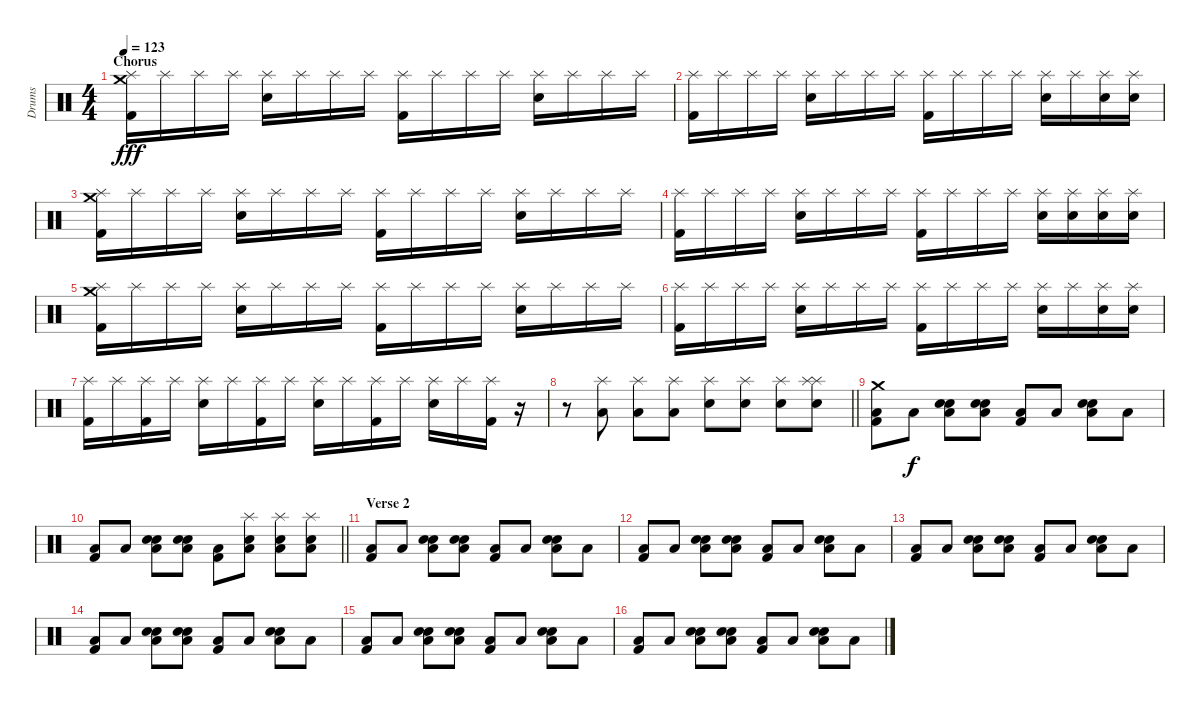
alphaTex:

\track ("Drums" "Drums") {instrument percussion}
\staff {score}
\articulation defaults
\ts (4 4)
\section ("" "Chorus")
\tempo 123
\clef neutral
\ks c
("Crash medium (hit)" "Splash (hit)" "Kick (hit) 2").16{dy fff} "Splash (hit)".16 "Splash (hit)".16 "Splash (hit)".16 ("Splash (hit)" "Electric Snare (hit)").16 "Splash (hit)".16 "Splash (hit)".16 "Splash (hit)".16 ("Splash (hit)" "Kick (hit) 2").16 "Splash (hit)".16 "Splash (hit)".16 "Splash (hit)".16 ("Splash (hit)" "Electric Snare (hit)").16 "Splash (hit)".16 "Splash (hit)".16 "Splash (hit)".16 |
("Splash (hit)" "Kick (hit) 2").16 "Splash (hit)".16 "Splash (hit)".16 "Splash (hit)".16 ("Splash (hit)" "Electric Snare (hit)").16 "Splash (hit)".16 "Splash (hit)".16 "Splash (hit)".16 ("Splash (hit)" "Kick (hit) 2").16 "Splash (hit)".16 "Splash (hit)".16 "Splash (hit)".16 ("Splash (hit)" "Electric Snare (hit)").16 "Splash (hit)".16 ("Splash (hit)" "Electric Snare (hit)").16 ("Splash (hit)" "Electric Snare (hit)").16 |
("Crash medium (hit)" "Splash (hit)" "Kick (hit) 2").16 "Splash (hit)".16 "Splash (hit)".16 "Splash (hit)".16 ("Splash (hit)" "Electric Snare (hit)").16 "Splash (hit)".16 "Splash (hit)".16 "Splash (hit)".16 ("Splash (hit)" "Kick (hit) 2").16 "Splash (hit)".16 "Splash (hit)".16 "Splash (hit)".16 ("Splash (hit)" "Electric Snare (hit)").16 "Splash (hit)".16 "Splash (hit)".16 "Splash (hit)".16 |
("Splash (hit)" "Kick (hit) 2").16 "Splash (hit)".16 "Splash (hit)".16 "Splash (hit)".16 ("Splash (hit)" "Electric Snare (hit)").16 "Splash (hit)".16 "Splash (hit)".16 "Splash (hit)".16 ("Splash (hit)" "Kick (hit) 2").16 "Splash (hit)".16 "Splash (hit)".16 "Splash (hit)".16 ("Splash (hit)" "Electric Snare (hit)").16 ("Splash (hit)" "Electric Snare (hit)").16 ("Splash (hit)" "Electric Snare (hit)").16 ("Splash (hit)" "Electric Snare (hit)").16 |
("Crash medium (hit)" "Splash (hit)" "Kick (hit) 2").16 "Splash (hit)".16 "Splash (hit)".16 "Splash (hit)".16 ("Splash (hit)" "Electric Snare (hit)").16 "Splash (hit)".16 "Splash (hit)".16 "Splash (hit)".16 ("Splash (hit)" "Kick (hit) 2").16 "Splash (hit)".16 "Splash (hit)".16 "Splash (hit)".16 ("Splash (hit)" "Electric Snare (hit)").16 "Splash (hit)".16 "Splash (hit)".16 "Splash (hit)".16 |
("Splash (hit)" "Kick (hit) 2").16 "Splash (hit)".16 "Splash (hit)".16 "Splash (hit)".16 ("Splash (hit)" "Electric Snare (hit)").16 "Splash (hit)".16 "Splash (hit)".16 "Splash (hit)".16 ("Splash (hit)" "Kick (hit) 2").16 "Splash (hit)".16 "Splash (hit)".16 "Splash (hit)".16 ("Splash (hit)" "Electric Snare (hit)").16 "Splash (hit)".16 ("Splash (hit)" "Electric Snare (hit)").16 ("Splash (hit)" "Electric Snare (hit)").16 |
("Splash (hit)" "Kick (hit) 2").16 "Splash (hit)".16 ("Splash (hit)" "Kick (hit) 2").16 "Splash (hit)".16 ("Splash (hit)" "Electric Snare (hit)").16 "Splash (hit)".16 ("Splash (hit)" "Kick (hit) 2").16 "Splash (hit)".16 ("Splash (hit)" "Electric Snare (hit)").16 "Splash (hit)".16 ("Splash (hit)" "Kick (hit) 2").16 "Splash (hit)".16 ("Splash (hit)" "Electric Snare (hit)").16 "Splash (hit)".16 ("Splash (hit)" "Kick (hit) 2").16 r.16 |
\barLineRight lightlight
r.8 ("Splash (hit)" "Low Floor Tom (hit)").8 ("Splash (hit)" "Low Floor Tom (hit)").8 ("Splash (hit)" "Low Floor Tom (hit)").8 ("Splash (hit)" "Electric Snare (hit)").8 ("Splash (hit)" "Electric Snare (hit)").8 ("Splash (hit)" "Electric Snare (hit)").8 ("Splash (hit)" "Splash (hit)" "Electric Snare (hit)").8 |
("Crash medium (hit)" "Low Floor Tom (hit)" "Kick (hit) 2").8 "Low Floor Tom (hit)".8{dy f} ("Electric Snare (hit)" "Electric Snare (hit)" "Low Floor Tom (hit)").8 ("Electric Snare (hit)" "Electric Snare (hit)" "Low Floor Tom (hit)").8 ("Low Floor Tom (hit)" "Kick (hit) 2").8 "Low Floor Tom (hit)".8 ("Electric Snare (hit)" "Electric Snare (hit)" "Low Floor Tom (hit)").8 "Low Floor Tom (hit)".8 |
\barLineRight lightlight
("Low Floor Tom (hit)" "Kick (hit) 2").8 "Low Floor Tom (hit)".8 ("Electric Snare (hit)" "Electric Snare (hit)" "Low Floor Tom (hit)").8 ("Electric Snare (hit)" "Electric Snare (hit)" "Low Floor Tom (hit)").8 ("Low Floor Tom (hit)" "Kick (hit) 2").8 ("Splash (hit)" "Electric Snare (hit)" "Low Floor Tom (hit)").8 ("Splash (hit)" "Electric Snare (hit)" "Low Floor Tom (hit)").8 ("Splash (hit)" "Electric Snare (hit)" "Low Floor Tom (hit)").8 |
\section ("" "Verse 2")
("Low Floor Tom (hit)" "Kick (hit) 2").8 "Low Floor Tom (hit)".8 ("Electric Snare (hit)" "Electric Snare (hit)" "Low Floor Tom (hit)").8 ("Electric Snare (hit)" "Electric Snare (hit)" "Low Floor Tom (hit)").8 ("Low Floor Tom (hit)" "Kick (hit) 2").8 "Low Floor Tom (hit)".8 ("Electric Snare (hit)" "Electric Snare (hit)" "Low Floor Tom (hit)").8 "Low Floor Tom (hit)".8 |
("Low Floor Tom (hit)" "Kick (hit) 2").8 "Low Floor Tom (hit)".8 ("Electric Snare (hit)" "Electric Snare (hit)" "Low Floor Tom (hit)").8 ("Electric Snare (hit)" "Electric Snare (hit)" "Low Floor Tom (hit)").8 ("Low Floor Tom (hit)" "Kick (hit) 2").8 "Low Floor Tom (hit)".8 ("Electric Snare (hit)" "Electric Snare (hit)" "Low Floor Tom (hit)").8 "Low Floor Tom (hit)".8 |
("Low Floor Tom (hit)" "Kick (hit) 2").8 "Low Floor Tom (hit)".8 ("Electric Snare (hit)" "Electric Snare (hit)" "Low Floor Tom (hit)").8 ("Electric Snare (hit)" "Electric Snare (hit)" "Low Floor Tom (hit)").8 ("Low Floor Tom (hit)" "Kick (hit) 2").8 "Low Floor Tom (hit)".8 ("Electric Snare (hit)" "Electric Snare (hit)" "Low Floor Tom (hit)").8 "Low Floor Tom (hit)".8 |
("Low Floor Tom (hit)" "Kick (hit) 2").8 "Low Floor Tom (hit)".8 ("Electric Snare (hit)" "Electric Snare (hit)" "Low Floor Tom (hit)").8 ("Electric Snare (hit)" "Electric Snare (hit)" "Low Floor Tom (hit)").8 ("Low Floor Tom (hit)" "Kick (hit) 2").8 "Low Floor Tom (hit)".8 ("Electric Snare (hit)" "Electric Snare (hit)" "Low Floor Tom (hit)").8 "Low Floor Tom (hit)".8 |
("Low Floor Tom (hit)" "Kick (hit) 2").8 "Low Floor Tom (hit)".8 ("Electric Snare (hit)" "Electric Snare (hit)" "Low Floor Tom (hit)").8 ("Electric Snare (hit)" "Electric Snare (hit)" "Low Floor Tom (hit)").8 ("Low Floor Tom (hit)" "Kick (hit) 2").8 "Low Floor Tom (hit)".8 ("Electric Snare (hit)" "Electric Snare (hit)" "Low Floor Tom (hit)").8 "Low Floor Tom (hit)".8 |
("Low Floor Tom (hit)" "Kick (hit) 2").8 "Low Floor Tom (hit)".8 ("Electric Snare (hit)" "Electric Snare (hit)" "Low Floor Tom (hit)").8 ("Electric Snare (hit)" "Electric Snare (hit)" "Low Floor Tom (hit)").8 ("Low Floor Tom (hit)" "Kick (hit) 2").8 "Low Floor Tom (hit)".8 ("Electric Snare (hit)" "Electric Snare (hit)" "Low Floor Tom (hit)").8 "Low Floor Tom (hit)".8
